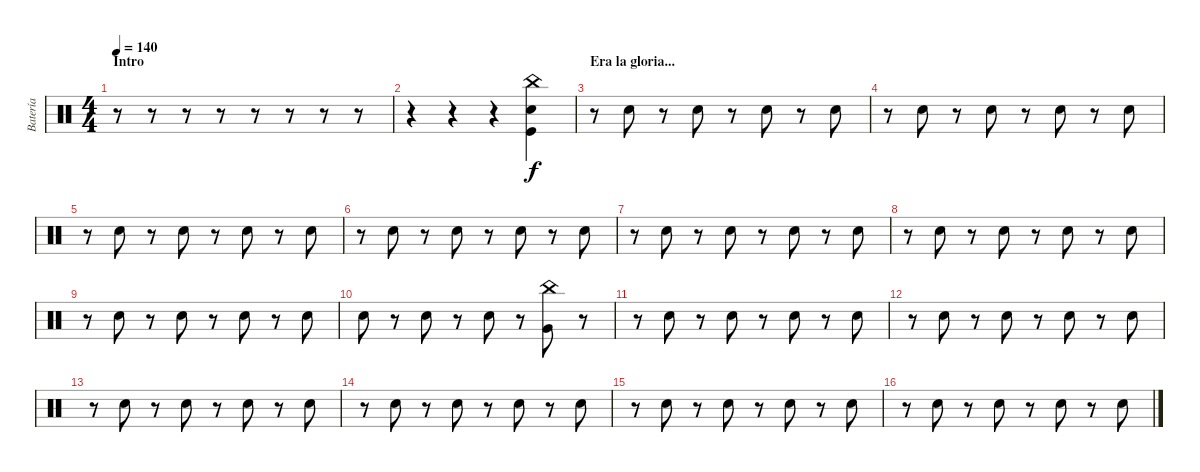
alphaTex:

\track ("Batería" "Batería") {instrument percussion}
\staff {score}
\articulation defaults
\ts (4 4)
\section ("" "Intro")
\tempo 140
\clef neutral
\ks c
r.8{dy f} r.8 r.8 r.8 r.8 r.8 r.8 r.8 |
r.4 r.4 r.4 ("China (hit)" "Snare (hit) 2" "Kick (hit)").4 |
\section ("" "Era la gloria...")
r.8 "Snare (hit) 2".8 r.8 "Snare (hit) 2".8 r.8 "Snare (hit) 2".8 r.8 "Snare (hit) 2".8 |
r.8 "Snare (hit) 2".8 r.8 "Snare (hit) 2".8 r.8 "Snare (hit) 2".8 r.8 "Snare (hit) 2".8 |
r.8 "Snare (hit) 2".8 r.8 "Snare (hit) 2".8 r.8 "Snare (hit) 2".8 r.8 "Snare (hit) 2".8 |
r.8 "Snare (hit) 2".8 r.8 "Snare (hit) 2".8 r.8 "Snare (hit) 2".8 r.8 "Snare (hit) 2".8 |
r.8 "Snare (hit) 2".8 r.8 "Snare (hit) 2".8 r.8 "Snare (hit) 2".8 r.8 "Snare (hit) 2".8 |
r.8 "Snare (hit) 2".8 r.8 "Snare (hit) 2".8 r.8 "Snare (hit) 2".8 r.8 "Snare (hit) 2".8 |
r.8 "Snare (hit) 2".8 r.8 "Snare (hit) 2".8 r.8 "Snare (hit) 2".8 r.8 "Snare (hit) 2".8 |
"Snare (hit) 2".8 r.8 "Snare (hit) 2".8 r.8 "Snare (hit) 2".8 r.8 ("China (hit)" "Very Low Tom (hit)").8 r.8 |
r.8 "Snare (hit) 2".8 r.8 "Snare (hit) 2".8 r.8 "Snare (hit) 2".8 r.8 "Snare (hit) 2".8 |
r.8 "Snare (hit) 2".8 r.8 "Snare (hit) 2".8 r.8 "Snare (hit) 2".8 r.8 "Snare (hit) 2".8 |
r.8 "Snare (hit) 2".8 r.8 "Snare (hit) 2".8 r.8 "Snare (hit) 2".8 r.8 "Snare (hit) 2".8 |
r.8 "Snare (hit) 2".8 r.8 "Snare (hit) 2".8 r.8 "Snare (hit) 2".8 r.8 "Snare (hit) 2".8 |
r.8 "Snare (hit) 2".8 r.8 "Snare (hit) 2".8 r.8 "Snare (hit) 2".8 r.8 "Snare (hit) 2".8 |
r.8 "Snare (hit) 2".8 r.8 "Snare (hit) 2".8 r.8 "Snare (hit) 2".8 r.8 "Snare (hit) 2".8
